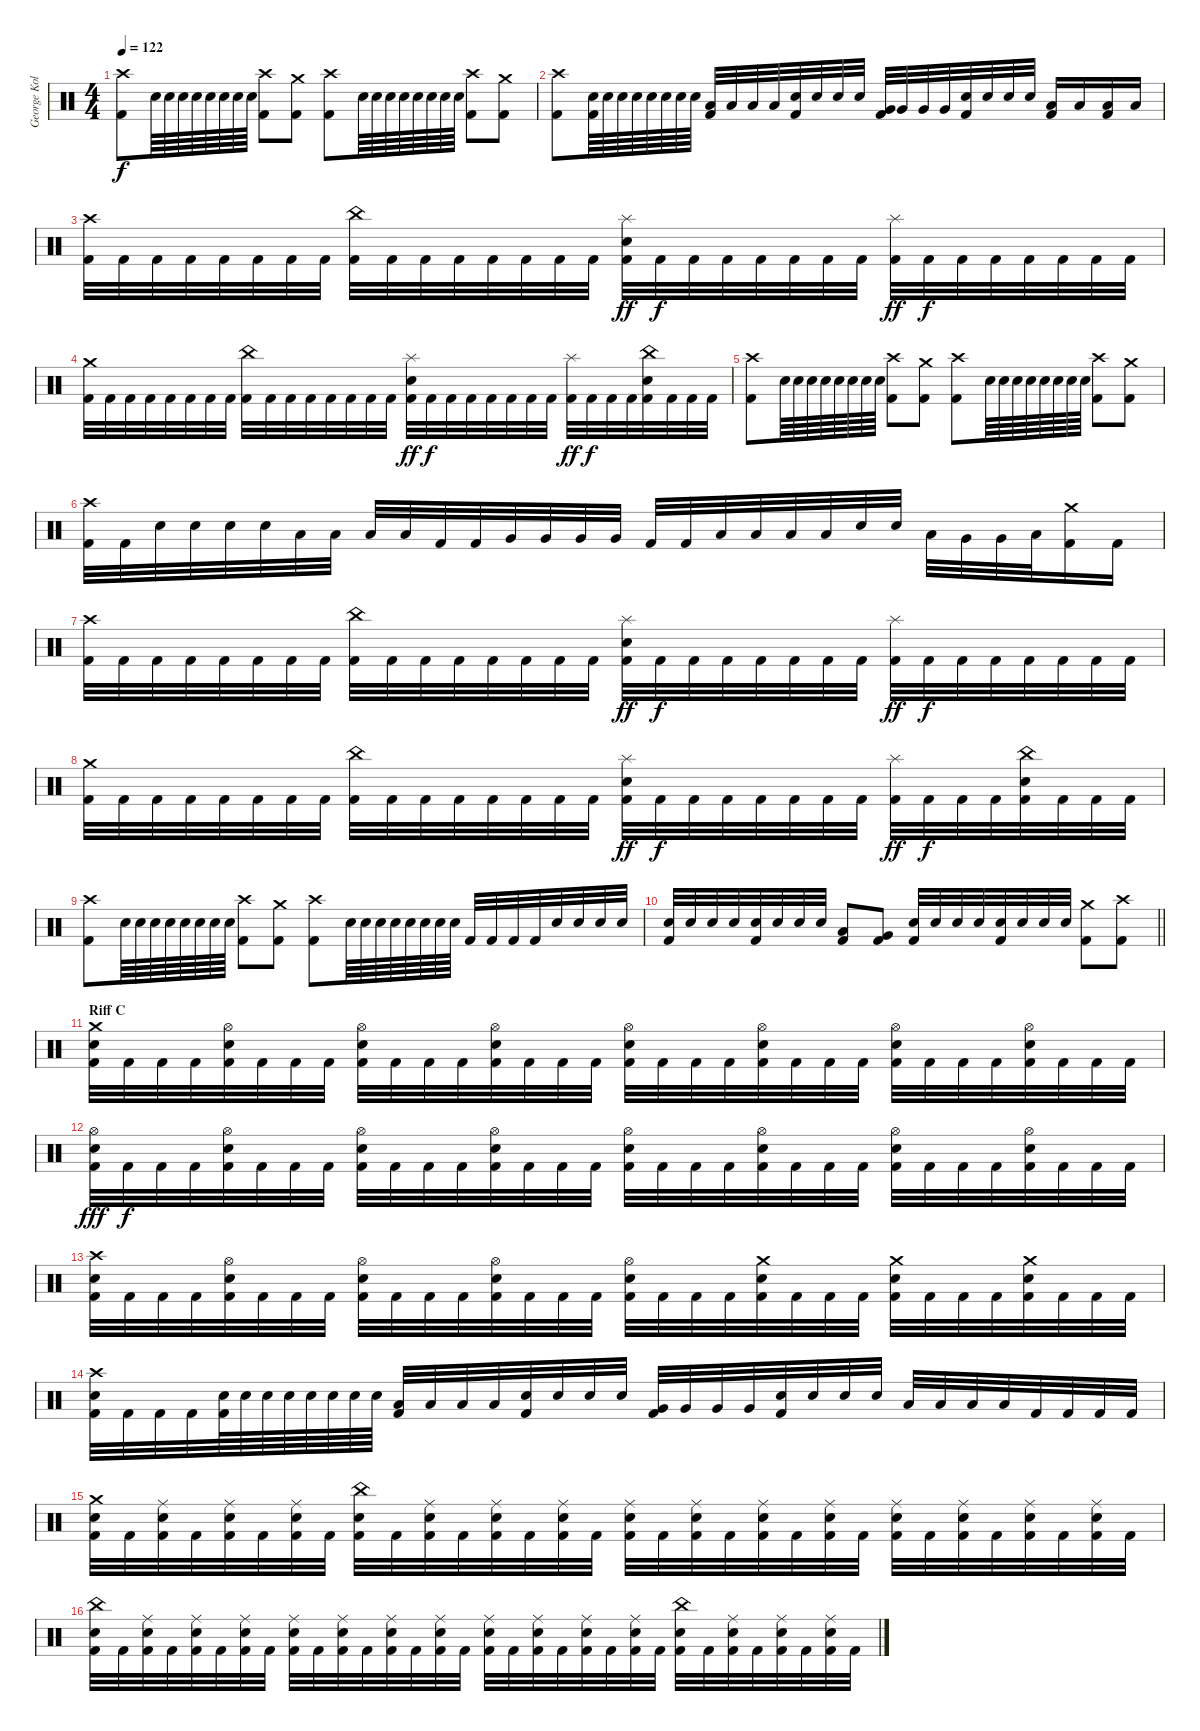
\track ("George Kollias" "George Kol") {instrument percussion}
\staff {score}
\articulation defaults
\ts (4 4)
\tempo 122
\clef neutral
\ks c
("Crash high (hit)" "Kick (hit) 2").8{dy f} "Snare (hit) 2".64 "Snare (hit) 2".64 "Snare (hit) 2".64 "Snare (hit) 2".64 "Snare (hit) 2".64 "Snare (hit) 2".64 "Snare (hit) 2".64 "Snare (hit) 2".64 ("Crash high (hit)" "Kick (hit) 2").8 ("Crash medium (hit)" "Kick (hit) 2").8 ("Crash high (hit)" "Kick (hit) 2").8 "Snare (hit) 2".64 "Snare (hit) 2".64 "Snare (hit) 2".64 "Snare (hit) 2".64 "Snare (hit) 2".64 "Snare (hit) 2".64 "Snare (hit) 2".64 "Snare (hit) 2".64 ("Crash high (hit)" "Kick (hit) 2").8 ("Crash medium (hit)" "Kick (hit) 2").8 |
("Crash high (hit)" "Kick (hit) 2").8 ("Snare (hit) 2" "Kick (hit) 2").64 "Snare (hit) 2".64 "Snare (hit) 2".64 "Snare (hit) 2".64 "Snare (hit) 2".64 "Snare (hit) 2".64 "Snare (hit) 2".64 "Snare (hit) 2".64 ("Low Tom (hit)" "Kick (hit) 2").32 "Low Tom (hit)".32 "Low Tom (hit)".32 "Low Tom (hit)".32 ("Snare (hit) 2" "Kick (hit) 2").32 "Snare (hit) 2".32 "Snare (hit) 2".32 "Snare (hit) 2".32 ("Very Low Tom (hit)" "Kick (hit) 2").32 "Very Low Tom (hit)".32 "Very Low Tom (hit)".32 "Very Low Tom (hit)".32 ("Snare (hit) 2" "Kick (hit) 2").32 "Snare (hit) 2".32 "Snare (hit) 2".32 "Snare (hit) 2".32 ("Low Floor Tom (hit)" "Kick (hit) 2").16 "Low Floor Tom (hit)".16 ("Low Floor Tom (hit)" "Kick (hit) 2").16 "Low Floor Tom (hit)".16 |
("Crash high (hit)" "Kick (hit) 2").32 "Kick (hit) 2".32 "Kick (hit) 2".32 "Kick (hit) 2".32 "Kick (hit) 2".32 "Kick (hit) 2".32 "Kick (hit) 2".32 "Kick (hit) 2".32 ("China (hit)" "Kick (hit) 2").32 "Kick (hit) 2".32 "Kick (hit) 2".32 "Kick (hit) 2".32 "Kick (hit) 2".32 "Kick (hit) 2".32 "Kick (hit) 2".32 "Kick (hit) 2".32 ("Splash (hit)" "Snare (hit) 2" "Kick (hit) 2").32{dy ff} "Kick (hit) 2".32{dy f} "Kick (hit) 2".32 "Kick (hit) 2".32 "Kick (hit) 2".32 "Kick (hit) 2".32 "Kick (hit) 2".32 "Kick (hit) 2".32 ("Splash (hit)" "Kick (hit) 2").32{dy ff} "Kick (hit) 2".32{dy f} "Kick (hit) 2".32 "Kick (hit) 2".32 "Kick (hit) 2".32 "Kick (hit) 2".32 "Kick (hit) 2".32 "Kick (hit) 2".32 |
("Crash medium (hit)" "Kick (hit) 2").32 "Kick (hit) 2".32 "Kick (hit) 2".32 "Kick (hit) 2".32 "Kick (hit) 2".32 "Kick (hit) 2".32 "Kick (hit) 2".32 "Kick (hit) 2".32 ("China (hit)" "Kick (hit) 2").32 "Kick (hit) 2".32 "Kick (hit) 2".32 "Kick (hit) 2".32 "Kick (hit) 2".32 "Kick (hit) 2".32 "Kick (hit) 2".32 "Kick (hit) 2".32 ("Splash (hit)" "Snare (hit) 2" "Kick (hit) 2").32{dy ff} "Kick (hit) 2".32{dy f} "Kick (hit) 2".32 "Kick (hit) 2".32 "Kick (hit) 2".32 "Kick (hit) 2".32 "Kick (hit) 2".32 "Kick (hit) 2".32 ("Splash (hit)" "Kick (hit) 2").32{dy ff} "Kick (hit) 2".32{dy f} "Kick (hit) 2".32 "Kick (hit) 2".32 ("China (hit)" "Snare (hit) 2" "Kick (hit) 2").32 "Kick (hit) 2".32 "Kick (hit) 2".32 "Kick (hit) 2".32 |
("Crash high (hit)" "Kick (hit) 2").8 "Snare (hit) 2".64 "Snare (hit) 2".64 "Snare (hit) 2".64 "Snare (hit) 2".64 "Snare (hit) 2".64 "Snare (hit) 2".64 "Snare (hit) 2".64 "Snare (hit) 2".64 ("Crash high (hit)" "Kick (hit) 2").8 ("Crash medium (hit)" "Kick (hit) 2").8 ("Crash high (hit)" "Kick (hit) 2").8 "Snare (hit) 2".64 "Snare (hit) 2".64 "Snare (hit) 2".64 "Snare (hit) 2".64 "Snare (hit) 2".64 "Snare (hit) 2".64 "Snare (hit) 2".64 "Snare (hit) 2".64 ("Crash high (hit)" "Kick (hit) 2").8 ("Crash medium (hit)" "Kick (hit) 2").8 |
("Crash high (hit)" "Kick (hit) 2").32 "Kick (hit) 2".32 "Snare (hit) 2".32 "Snare (hit) 2".32 "Snare (hit) 2".32 "Snare (hit) 2".32 "Low Tom (hit)".32 "Low Tom (hit)".32 "Low Tom (hit)".32 "Low Tom (hit)".32 "Kick (hit) 2".32 "Kick (hit) 2".32 "Very Low Tom (hit)".32 "Very Low Tom (hit)".32 "Very Low Tom (hit)".32 "Very Low Tom (hit)".32 "Kick (hit) 2".32 "Kick (hit) 2".32 "Low Floor Tom (hit)".32 "Low Floor Tom (hit)".32 "Low Floor Tom (hit)".32 "Low Floor Tom (hit)".32 "Snare (hit) 2".32 "Snare (hit) 2".32 "Low Tom (hit)".32 "Very Low Tom (hit)".32 "Very Low Tom (hit)".32 "Low Floor Tom (hit)".32 ("Crash medium (hit)" "Kick (hit) 2").16 "Kick (hit) 2".16 |
("Crash high (hit)" "Kick (hit) 2").32 "Kick (hit) 2".32 "Kick (hit) 2".32 "Kick (hit) 2".32 "Kick (hit) 2".32 "Kick (hit) 2".32 "Kick (hit) 2".32 "Kick (hit) 2".32 ("China (hit)" "Kick (hit) 2").32 "Kick (hit) 2".32 "Kick (hit) 2".32 "Kick (hit) 2".32 "Kick (hit) 2".32 "Kick (hit) 2".32 "Kick (hit) 2".32 "Kick (hit) 2".32 ("Splash (hit)" "Snare (hit) 2" "Kick (hit) 2").32{dy ff} "Kick (hit) 2".32{dy f} "Kick (hit) 2".32 "Kick (hit) 2".32 "Kick (hit) 2".32 "Kick (hit) 2".32 "Kick (hit) 2".32 "Kick (hit) 2".32 ("Splash (hit)" "Kick (hit) 2").32{dy ff} "Kick (hit) 2".32{dy f} "Kick (hit) 2".32 "Kick (hit) 2".32 "Kick (hit) 2".32 "Kick (hit) 2".32 "Kick (hit) 2".32 "Kick (hit) 2".32 |
("Crash medium (hit)" "Kick (hit) 2").32 "Kick (hit) 2".32 "Kick (hit) 2".32 "Kick (hit) 2".32 "Kick (hit) 2".32 "Kick (hit) 2".32 "Kick (hit) 2".32 "Kick (hit) 2".32 ("China (hit)" "Kick (hit) 2").32 "Kick (hit) 2".32 "Kick (hit) 2".32 "Kick (hit) 2".32 "Kick (hit) 2".32 "Kick (hit) 2".32 "Kick (hit) 2".32 "Kick (hit) 2".32 ("Splash (hit)" "Snare (hit) 2" "Kick (hit) 2").32{dy ff} "Kick (hit) 2".32{dy f} "Kick (hit) 2".32 "Kick (hit) 2".32 "Kick (hit) 2".32 "Kick (hit) 2".32 "Kick (hit) 2".32 "Kick (hit) 2".32 ("Splash (hit)" "Kick (hit) 2").32{dy ff} "Kick (hit) 2".32{dy f} "Kick (hit) 2".32 "Kick (hit) 2".32 ("China (hit)" "Snare (hit) 2" "Kick (hit) 2").32 "Kick (hit) 2".32 "Kick (hit) 2".32 "Kick (hit) 2".32 |
("Crash high (hit)" "Kick (hit) 2").8 "Snare (hit) 2".64 "Snare (hit) 2".64 "Snare (hit) 2".64 "Snare (hit) 2".64 "Snare (hit) 2".64 "Snare (hit) 2".64 "Snare (hit) 2".64 "Snare (hit) 2".64 ("Crash high (hit)" "Kick (hit) 2").8 ("Crash medium (hit)" "Kick (hit) 2").8 ("Crash high (hit)" "Kick (hit) 2").8 "Snare (hit) 2".64 "Snare (hit) 2".64 "Snare (hit) 2".64 "Snare (hit) 2".64 "Snare (hit) 2".64 "Snare (hit) 2".64 "Snare (hit) 2".64 "Snare (hit) 2".64 "Kick (hit) 2".32 "Kick (hit) 2".32 "Kick (hit) 2".32 "Kick (hit) 2".32 "Snare (hit) 2".32 "Snare (hit) 2".32 "Snare (hit) 2".32 "Snare (hit) 2".32 |
\barLineRight lightlight
("Snare (hit) 2" "Kick (hit) 2").32 "Snare (hit) 2".32 "Snare (hit) 2".32 "Snare (hit) 2".32 ("Snare (hit) 2" "Kick (hit) 2").32 "Snare (hit) 2".32 "Snare (hit) 2".32 "Snare (hit) 2".32 ("Low Tom (hit)" "Kick (hit) 2").8 ("Very Low Tom (hit)" "Kick (hit) 2").8 ("Snare (hit) 2" "Kick (hit) 2").32 "Snare (hit) 2".32 "Snare (hit) 2".32 "Snare (hit) 2".32 ("Snare (hit) 2" "Kick (hit) 2").32 "Snare (hit) 2".32 "Snare (hit) 2".32 "Snare (hit) 2".32 ("Crash medium (hit)" "Kick (hit) 2").8 ("Crash high (hit)" "Kick (hit) 2").8 |
\section ("" "Riff C")
("Crash medium (hit)" "Snare (hit) 2" "Kick (hit) 2").32 "Kick (hit) 2".32 "Kick (hit) 2".32 "Kick (hit) 2".32 ("Hi-Hat (open)" "Snare (hit) 2" "Kick (hit) 2").32 "Kick (hit) 2".32 "Kick (hit) 2".32 "Kick (hit) 2".32 ("Hi-Hat (open)" "Snare (hit) 2" "Kick (hit) 2").32 "Kick (hit) 2".32 "Kick (hit) 2".32 "Kick (hit) 2".32 ("Hi-Hat (open)" "Snare (hit) 2" "Kick (hit) 2").32 "Kick (hit) 2".32 "Kick (hit) 2".32 "Kick (hit) 2".32 ("Hi-Hat (open)" "Snare (hit) 2" "Kick (hit) 2").32 "Kick (hit) 2".32 "Kick (hit) 2".32 "Kick (hit) 2".32 ("Hi-Hat (open)" "Snare (hit) 2" "Kick (hit) 2").32 "Kick (hit) 2".32 "Kick (hit) 2".32 "Kick (hit) 2".32 ("Hi-Hat (open)" "Snare (hit) 2" "Kick (hit) 2").32 "Kick (hit) 2".32 "Kick (hit) 2".32 "Kick (hit) 2".32 ("Hi-Hat (open)" "Snare (hit) 2" "Kick (hit) 2").32 "Kick (hit) 2".32 "Kick (hit) 2".32 "Kick (hit) 2".32 |
("Hi-Hat (open)" "Snare (hit) 2" "Kick (hit) 2").32{dy fff} "Kick (hit) 2".32{dy f} "Kick (hit) 2".32 "Kick (hit) 2".32 ("Hi-Hat (open)" "Snare (hit) 2" "Kick (hit) 2").32 "Kick (hit) 2".32 "Kick (hit) 2".32 "Kick (hit) 2".32 ("Hi-Hat (open)" "Snare (hit) 2" "Kick (hit) 2").32 "Kick (hit) 2".32 "Kick (hit) 2".32 "Kick (hit) 2".32 ("Hi-Hat (open)" "Snare (hit) 2" "Kick (hit) 2").32 "Kick (hit) 2".32 "Kick (hit) 2".32 "Kick (hit) 2".32 ("Hi-Hat (open)" "Snare (hit) 2" "Kick (hit) 2").32 "Kick (hit) 2".32 "Kick (hit) 2".32 "Kick (hit) 2".32 ("Hi-Hat (open)" "Snare (hit) 2" "Kick (hit) 2").32 "Kick (hit) 2".32 "Kick (hit) 2".32 "Kick (hit) 2".32 ("Hi-Hat (open)" "Snare (hit) 2" "Kick (hit) 2").32 "Kick (hit) 2".32 "Kick (hit) 2".32 "Kick (hit) 2".32 ("Hi-Hat (open)" "Snare (hit) 2" "Kick (hit) 2").32 "Kick (hit) 2".32 "Kick (hit) 2".32 "Kick (hit) 2".32 |
("Crash high (hit)" "Snare (hit) 2" "Kick (hit) 2").32 "Kick (hit) 2".32 "Kick (hit) 2".32 "Kick (hit) 2".32 ("Hi-Hat (open)" "Snare (hit) 2" "Kick (hit) 2").32 "Kick (hit) 2".32 "Kick (hit) 2".32 "Kick (hit) 2".32 ("Hi-Hat (open)" "Snare (hit) 2" "Kick (hit) 2").32 "Kick (hit) 2".32 "Kick (hit) 2".32 "Kick (hit) 2".32 ("Hi-Hat (open)" "Snare (hit) 2" "Kick (hit) 2").32 "Kick (hit) 2".32 "Kick (hit) 2".32 "Kick (hit) 2".32 ("Hi-Hat (open)" "Snare (hit) 2" "Kick (hit) 2").32 "Kick (hit) 2".32 "Kick (hit) 2".32 "Kick (hit) 2".32 ("Crash medium (hit)" "Snare (hit) 2" "Kick (hit) 2").32 "Kick (hit) 2".32 "Kick (hit) 2".32 "Kick (hit) 2".32 ("Crash medium (hit)" "Snare (hit) 2" "Kick (hit) 2").32 "Kick (hit) 2".32 "Kick (hit) 2".32 "Kick (hit) 2".32 ("Crash medium (hit)" "Snare (hit) 2" "Kick (hit) 2").32 "Kick (hit) 2".32 "Kick (hit) 2".32 "Kick (hit) 2".32 |
("Crash high (hit)" "Snare (hit) 2" "Kick (hit) 2").32 "Kick (hit) 2".32 "Kick (hit) 2".32 "Kick (hit) 2".32 ("Snare (hit) 2" "Kick (hit) 2").64 "Snare (hit) 2".64 "Snare (hit) 2".64 "Snare (hit) 2".64 "Snare (hit) 2".64 "Snare (hit) 2".64 "Snare (hit) 2".64 "Snare (hit) 2".64 ("Low Tom (hit)" "Kick (hit) 2").32 "Low Tom (hit)".32 "Low Tom (hit)".32 "Low Tom (hit)".32 ("Snare (hit) 2" "Kick (hit) 2").32 "Snare (hit) 2".32 "Snare (hit) 2".32 "Snare (hit) 2".32 ("Very Low Tom (hit)" "Kick (hit) 2").32 "Very Low Tom (hit)".32 "Very Low Tom (hit)".32 "Very Low Tom (hit)".32 ("Snare (hit) 2" "Kick (hit) 2").32 "Snare (hit) 2".32 "Snare (hit) 2".32 "Snare (hit) 2".32 "Low Floor Tom (hit)".32 "Low Floor Tom (hit)".32 "Low Floor Tom (hit)".32 "Low Floor Tom (hit)".32 "Kick (hit) 2".32 "Kick (hit) 2".32 "Kick (hit) 2".32 "Kick (hit) 2".32 |
("Crash medium (hit)" "Snare (hit) 2" "Kick (hit) 2").32 "Kick (hit) 2".32 ("Ride (middle)" "Snare (hit) 2" "Kick (hit) 2").32 "Kick (hit) 2".32 ("Ride (middle)" "Snare (hit) 2" "Kick (hit) 2").32 "Kick (hit) 2".32 ("Ride (middle)" "Snare (hit) 2" "Kick (hit) 2").32 "Kick (hit) 2".32 ("China (hit)" "Snare (hit) 2" "Kick (hit) 2").32 "Kick (hit) 2".32 ("Ride (middle)" "Snare (hit) 2" "Kick (hit) 2").32 "Kick (hit) 2".32 ("Ride (middle)" "Snare (hit) 2" "Kick (hit) 2").32 "Kick (hit) 2".32 ("Ride (middle)" "Snare (hit) 2" "Kick (hit) 2").32 "Kick (hit) 2".32 ("Ride (middle)" "Snare (hit) 2" "Kick (hit) 2").32 "Kick (hit) 2".32 ("Ride (middle)" "Snare (hit) 2" "Kick (hit) 2").32 "Kick (hit) 2".32 ("Ride (middle)" "Snare (hit) 2" "Kick (hit) 2").32 "Kick (hit) 2".32 ("Ride (middle)" "Snare (hit) 2" "Kick (hit) 2").32 "Kick (hit) 2".32 ("Ride (middle)" "Snare (hit) 2" "Kick (hit) 2").32 "Kick (hit) 2".32 ("Ride (middle)" "Snare (hit) 2" "Kick (hit) 2").32 "Kick (hit) 2".32 ("Ride (middle)" "Snare (hit) 2" "Kick (hit) 2").32 "Kick (hit) 2".32 ("Ride (middle)" "Snare (hit) 2" "Kick (hit) 2").32 "Kick (hit) 2".32 |
("China (hit)" "Snare (hit) 2" "Kick (hit) 2").32 "Kick (hit) 2".32 ("Ride (middle)" "Snare (hit) 2" "Kick (hit) 2").32 "Kick (hit) 2".32 ("Ride (middle)" "Snare (hit) 2" "Kick (hit) 2").32 "Kick (hit) 2".32 ("Ride (middle)" "Snare (hit) 2" "Kick (hit) 2").32 "Kick (hit) 2".32 ("Ride (middle)" "Snare (hit) 2" "Kick (hit) 2").32 "Kick (hit) 2".32 ("Ride (middle)" "Snare (hit) 2" "Kick (hit) 2").32 "Kick (hit) 2".32 ("Ride (middle)" "Snare (hit) 2" "Kick (hit) 2").32 "Kick (hit) 2".32 ("Ride (middle)" "Snare (hit) 2" "Kick (hit) 2").32 "Kick (hit) 2".32 ("Ride (middle)" "Snare (hit) 2" "Kick (hit) 2").32 "Kick (hit) 2".32 ("Ride (middle)" "Snare (hit) 2" "Kick (hit) 2").32 "Kick (hit) 2".32 ("Ride (middle)" "Snare (hit) 2" "Kick (hit) 2").32 "Kick (hit) 2".32 ("Ride (middle)" "Snare (hit) 2" "Kick (hit) 2").32 "Kick (hit) 2".32 ("China (hit)" "Snare (hit) 2" "Kick (hit) 2").32 "Kick (hit) 2".32 ("Ride (middle)" "Snare (hit) 2" "Kick (hit) 2").32 "Kick (hit) 2".32 ("Ride (middle)" "Snare (hit) 2" "Kick (hit) 2").32 "Kick (hit) 2".32 ("Ride (middle)" "Snare (hit) 2" "Kick (hit) 2").32 "Kick (hit) 2".32
